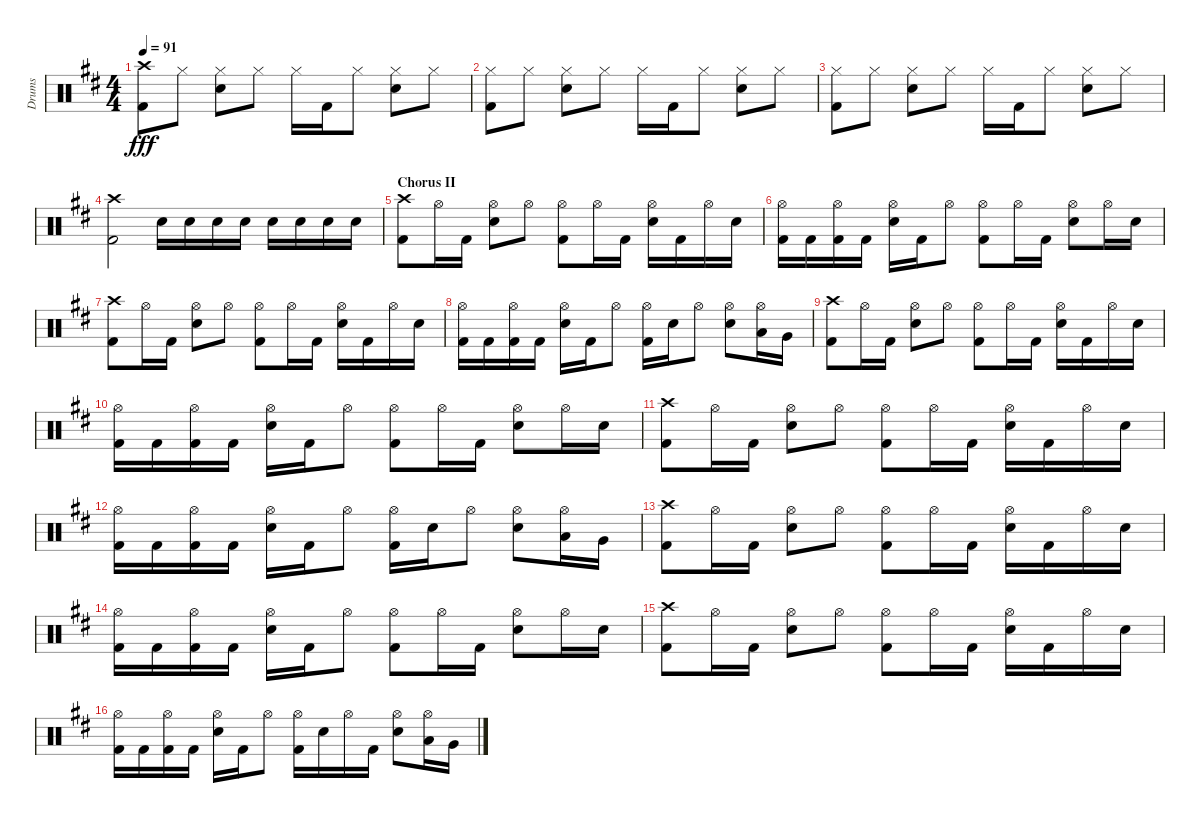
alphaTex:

\track ("Drums" "Drums") {instrument percussion}
\staff {score}
\articulation defaults
\ts (4 4)
\tempo 91
\clef neutral
\ks d
("Crash high (hit)" "Kick (hit) 2").8{dy fff} "Hi-Hat (closed)".8 ("Hi-Hat (closed)" "Snare (hit) 2").8 "Hi-Hat (closed)".8 "Hi-Hat (closed)".16 "Kick (hit) 2".16 "Hi-Hat (closed)".8 ("Hi-Hat (closed)" "Snare (hit) 2").8 "Hi-Hat (closed)".8 |
("Hi-Hat (closed)" "Kick (hit) 2").8 "Hi-Hat (closed)".8 ("Hi-Hat (closed)" "Snare (hit) 2").8 "Hi-Hat (closed)".8 "Hi-Hat (closed)".16 "Kick (hit) 2".16 "Hi-Hat (closed)".8 ("Hi-Hat (closed)" "Snare (hit) 2").8 "Hi-Hat (closed)".8 |
("Hi-Hat (closed)" "Kick (hit) 2").8 "Hi-Hat (closed)".8 ("Hi-Hat (closed)" "Snare (hit) 2").8 "Hi-Hat (closed)".8 "Hi-Hat (closed)".16 "Kick (hit) 2".16 "Hi-Hat (closed)".8 ("Hi-Hat (closed)" "Snare (hit) 2").8 "Hi-Hat (closed)".8 |
("Crash high (hit)" "Kick (hit) 2").2 "Snare (hit) 2".16 "Snare (hit) 2".16 "Snare (hit) 2".16 "Snare (hit) 2".16 "Snare (hit) 2".16 "Snare (hit) 2".16 "Snare (hit) 2".16 "Snare (hit) 2".16 |
\section ("" "Chorus II")
("Crash high (hit)" "Kick (hit) 2").8 "Hi-Hat (open)".16 "Kick (hit) 2".16 ("Hi-Hat (open)" "Snare (hit) 2").8 "Hi-Hat (open)".8 ("Hi-Hat (open)" "Kick (hit) 2").8 "Hi-Hat (open)".16 "Kick (hit) 2".16 ("Hi-Hat (open)" "Snare (hit) 2").16 "Kick (hit) 2".16 "Hi-Hat (open)".16 "Snare (hit) 2".16 |
("Hi-Hat (open)" "Kick (hit) 2").16 "Kick (hit) 2".16 ("Hi-Hat (open)" "Kick (hit) 2").16 "Kick (hit) 2".16 ("Hi-Hat (open)" "Snare (hit) 2").16 "Kick (hit) 2".16 "Hi-Hat (open)".8 ("Hi-Hat (open)" "Kick (hit) 2").8 "Hi-Hat (open)".16 "Kick (hit) 2".16 ("Hi-Hat (open)" "Snare (hit) 2").8 "Hi-Hat (open)".16 "Snare (hit) 2".16 |
("Crash high (hit)" "Kick (hit) 2").8 "Hi-Hat (open)".16 "Kick (hit) 2".16 ("Hi-Hat (open)" "Snare (hit) 2").8 "Hi-Hat (open)".8 ("Hi-Hat (open)" "Kick (hit) 2").8 "Hi-Hat (open)".16 "Kick (hit) 2".16 ("Hi-Hat (open)" "Snare (hit) 2").16 "Kick (hit) 2".16 "Hi-Hat (open)".16 "Snare (hit) 2".16 |
("Hi-Hat (open)" "Kick (hit) 2").16 "Kick (hit) 2".16 ("Hi-Hat (open)" "Kick (hit) 2").16 "Kick (hit) 2".16 ("Hi-Hat (open)" "Snare (hit) 2").16 "Kick (hit) 2".16 "Hi-Hat (open)".8 ("Hi-Hat (open)" "Kick (hit) 2").16 "Snare (hit) 2".16 "Hi-Hat (open)".8 ("Hi-Hat (open)" "Snare (hit) 2").8 ("Hi-Hat (open)" "Low Tom (hit)").16 "Very Low Tom (hit)".16 |
("Crash high (hit)" "Kick (hit) 2").8 "Hi-Hat (open)".16 "Kick (hit) 2".16 ("Hi-Hat (open)" "Snare (hit) 2").8 "Hi-Hat (open)".8 ("Hi-Hat (open)" "Kick (hit) 2").8 "Hi-Hat (open)".16 "Kick (hit) 2".16 ("Hi-Hat (open)" "Snare (hit) 2").16 "Kick (hit) 2".16 "Hi-Hat (open)".16 "Snare (hit) 2".16 |
("Hi-Hat (open)" "Kick (hit) 2").16 "Kick (hit) 2".16 ("Hi-Hat (open)" "Kick (hit) 2").16 "Kick (hit) 2".16 ("Hi-Hat (open)" "Snare (hit) 2").16 "Kick (hit) 2".16 "Hi-Hat (open)".8 ("Hi-Hat (open)" "Kick (hit) 2").8 "Hi-Hat (open)".16 "Kick (hit) 2".16 ("Hi-Hat (open)" "Snare (hit) 2").8 "Hi-Hat (open)".16 "Snare (hit) 2".16 |
("Crash high (hit)" "Kick (hit) 2").8 "Hi-Hat (open)".16 "Kick (hit) 2".16 ("Hi-Hat (open)" "Snare (hit) 2").8 "Hi-Hat (open)".8 ("Hi-Hat (open)" "Kick (hit) 2").8 "Hi-Hat (open)".16 "Kick (hit) 2".16 ("Hi-Hat (open)" "Snare (hit) 2").16 "Kick (hit) 2".16 "Hi-Hat (open)".16 "Snare (hit) 2".16 |
("Hi-Hat (open)" "Kick (hit) 2").16 "Kick (hit) 2".16 ("Hi-Hat (open)" "Kick (hit) 2").16 "Kick (hit) 2".16 ("Hi-Hat (open)" "Snare (hit) 2").16 "Kick (hit) 2".16 "Hi-Hat (open)".8 ("Hi-Hat (open)" "Kick (hit) 2").16 "Snare (hit) 2".16 "Hi-Hat (open)".8 ("Hi-Hat (open)" "Snare (hit) 2").8 ("Hi-Hat (open)" "Low Tom (hit)").16 "Very Low Tom (hit)".16 |
("Crash high (hit)" "Kick (hit) 2").8 "Hi-Hat (open)".16 "Kick (hit) 2".16 ("Hi-Hat (open)" "Snare (hit) 2").8 "Hi-Hat (open)".8 ("Hi-Hat (open)" "Kick (hit) 2").8 "Hi-Hat (open)".16 "Kick (hit) 2".16 ("Hi-Hat (open)" "Snare (hit) 2").16 "Kick (hit) 2".16 "Hi-Hat (open)".16 "Snare (hit) 2".16 |
("Hi-Hat (open)" "Kick (hit) 2").16 "Kick (hit) 2".16 ("Hi-Hat (open)" "Kick (hit) 2").16 "Kick (hit) 2".16 ("Hi-Hat (open)" "Snare (hit) 2").16 "Kick (hit) 2".16 "Hi-Hat (open)".8 ("Hi-Hat (open)" "Kick (hit) 2").8 "Hi-Hat (open)".16 "Kick (hit) 2".16 ("Hi-Hat (open)" "Snare (hit) 2").8 "Hi-Hat (open)".16 "Snare (hit) 2".16 |
("Crash high (hit)" "Kick (hit) 2").8 "Hi-Hat (open)".16 "Kick (hit) 2".16 ("Hi-Hat (open)" "Snare (hit) 2").8 "Hi-Hat (open)".8 ("Hi-Hat (open)" "Kick (hit) 2").8 "Hi-Hat (open)".16 "Kick (hit) 2".16 ("Hi-Hat (open)" "Snare (hit) 2").16 "Kick (hit) 2".16 "Hi-Hat (open)".16 "Snare (hit) 2".16 |
("Hi-Hat (open)" "Kick (hit) 2").16 "Kick (hit) 2".16 ("Hi-Hat (open)" "Kick (hit) 2").16 "Kick (hit) 2".16 ("Hi-Hat (open)" "Snare (hit) 2").16 "Kick (hit) 2".16 "Hi-Hat (open)".8 ("Hi-Hat (open)" "Kick (hit) 2").16 "Snare (hit) 2".16 "Hi-Hat (open)".16 "Kick (hit) 2".16 ("Hi-Hat (open)" "Snare (hit) 2").8 ("Hi-Hat (open)" "Low Tom (hit)").16 "Very Low Tom (hit)".16
